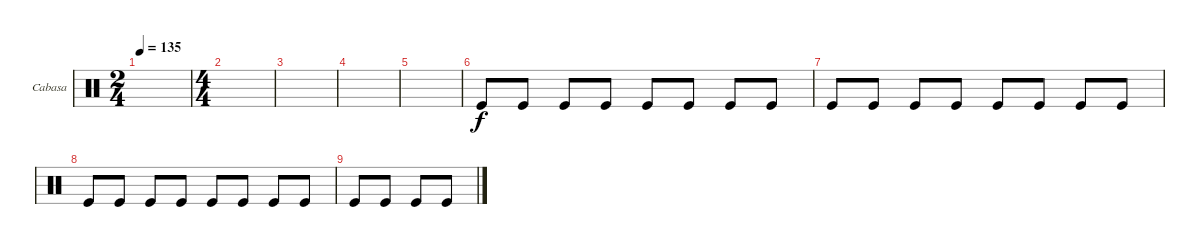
\defaultSystemsLayout 4
\bracketExtendMode groupsimilarinstruments
\firstSystemTrackNameOrientation horizontal
\otherSystemsTrackNameOrientation horizontal
\track ("Cabasa" "Cabasa") {instrument percussion}
\staff {score}
\articulation defaults
\ts (2 4)
\tempo 135
\clef neutral
\scale
0.390805
\ks c
|
\ts (4 4)
\scale
0.390805 |
\scale
0.218391 |
\scale
0.333333 |
\scale
0.333333 |
\scale
0.333333 "Kick (hit)".8 "Kick (hit)".8 "Kick (hit)".8 "Kick (hit)".8 "Kick (hit)".8 "Kick (hit)".8 "Kick (hit)".8 "Kick (hit)".8 |
\scale
0.333333 "Kick (hit)".8 "Kick (hit)".8 "Kick (hit)".8 "Kick (hit)".8 "Kick (hit)".8 "Kick (hit)".8 "Kick (hit)".8 "Kick (hit)".8 |
\scale
0.333333 "Kick (hit)".8 "Kick (hit)".8 "Kick (hit)".8 "Kick (hit)".8 "Kick (hit)".8 "Kick (hit)".8 "Kick (hit)".8 "Kick (hit)".8 |
\scale
0.333333 "Kick (hit)".8 "Kick (hit)".8 "Kick (hit)".8 "Kick (hit)".8 |
\scale
0.333333 |
\scale
0.333333 |
\scale
0.333333 |
\scale
0.333333 |
\scale
0.333333 |
\scale
0.333333 |
\scale
0.333333
